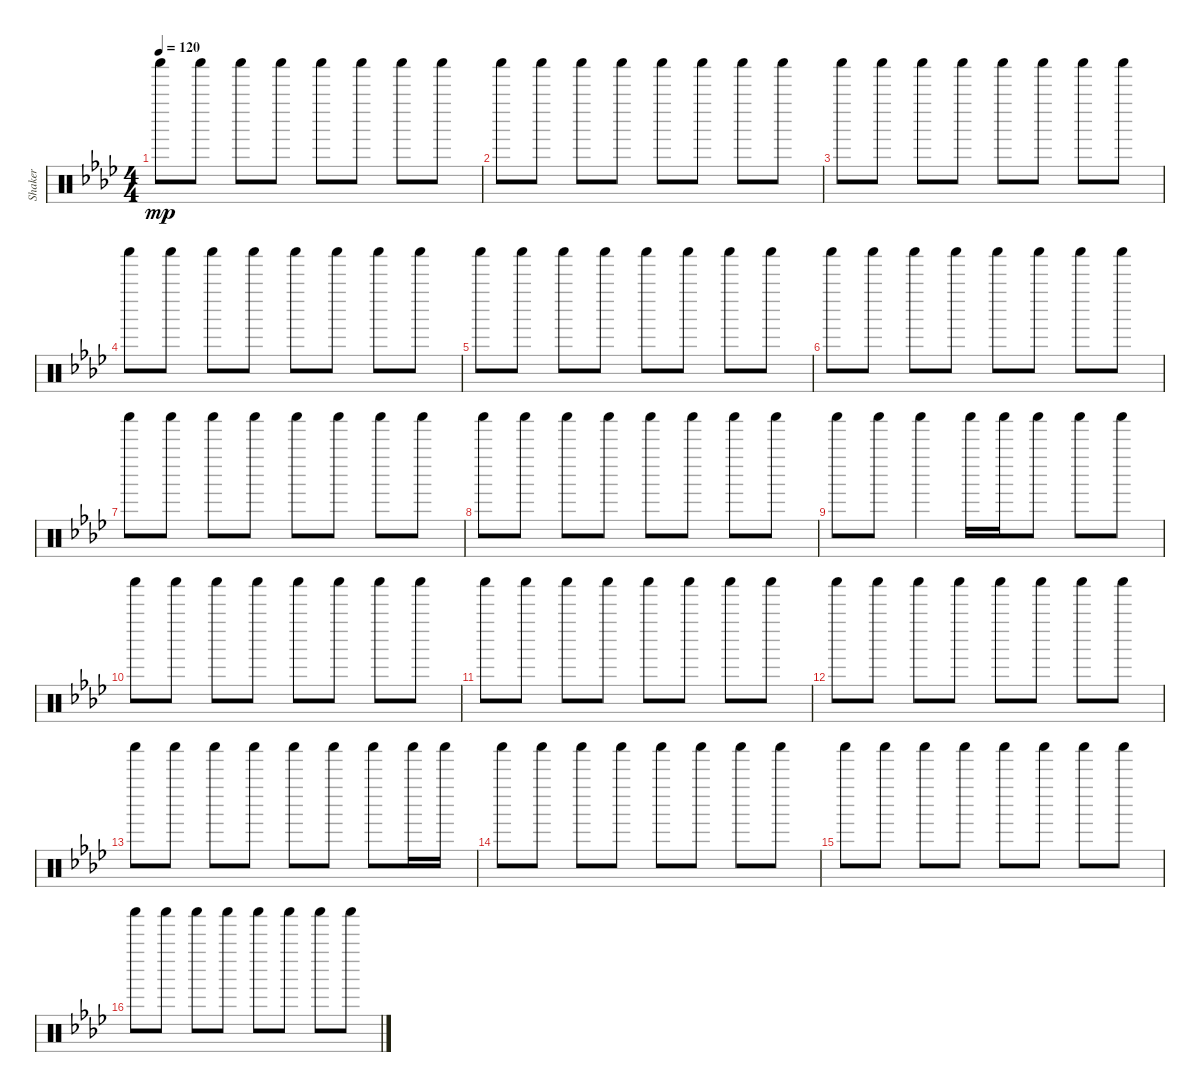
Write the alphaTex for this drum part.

\track ("Shaker" "Shaker") {instrument percussion}
\staff {score}
\articulation defaults
\ts (4 4)
\tempo 120
\clef neutral
\ks ab "Shaker (hit)".8{dy mp} "Shaker (hit)".8 "Shaker (hit)".8 "Shaker (hit)".8 "Shaker (hit)".8 "Shaker (hit)".8 "Shaker (hit)".8 "Shaker (hit)".8
|
"Shaker (hit)".8 "Shaker (hit)".8 "Shaker (hit)".8 "Shaker (hit)".8 "Shaker (hit)".8 "Shaker (hit)".8 "Shaker (hit)".8 "Shaker (hit)".8 |
"Shaker (hit)".8 "Shaker (hit)".8 "Shaker (hit)".8 "Shaker (hit)".8 "Shaker (hit)".8 "Shaker (hit)".8 "Shaker (hit)".8 "Shaker (hit)".8 |
"Shaker (hit)".8 "Shaker (hit)".8 "Shaker (hit)".8 "Shaker (hit)".8 "Shaker (hit)".8 "Shaker (hit)".8 "Shaker (hit)".8 "Shaker (hit)".8 |
"Shaker (hit)".8 "Shaker (hit)".8 "Shaker (hit)".8 "Shaker (hit)".8 "Shaker (hit)".8 "Shaker (hit)".8 "Shaker (hit)".8 "Shaker (hit)".8 |
"Shaker (hit)".8 "Shaker (hit)".8 "Shaker (hit)".8 "Shaker (hit)".8 "Shaker (hit)".8 "Shaker (hit)".8 "Shaker (hit)".8 "Shaker (hit)".8 |
"Shaker (hit)".8 "Shaker (hit)".8 "Shaker (hit)".8 "Shaker (hit)".8 "Shaker (hit)".8 "Shaker (hit)".8 "Shaker (hit)".8 "Shaker (hit)".8 |
"Shaker (hit)".8 "Shaker (hit)".8 "Shaker (hit)".8 "Shaker (hit)".8 "Shaker (hit)".8 "Shaker (hit)".8 "Shaker (hit)".8 "Shaker (hit)".8 |
"Shaker (hit)".8 "Shaker (hit)".8 "Shaker (hit)".4 "Shaker (hit)".16 "Shaker (hit)".16 "Shaker (hit)".8 "Shaker (hit)".8 "Shaker (hit)".8 |
"Shaker (hit)".8 "Shaker (hit)".8 "Shaker (hit)".8 "Shaker (hit)".8 "Shaker (hit)".8 "Shaker (hit)".8 "Shaker (hit)".8 "Shaker (hit)".8 |
"Shaker (hit)".8 "Shaker (hit)".8 "Shaker (hit)".8 "Shaker (hit)".8 "Shaker (hit)".8 "Shaker (hit)".8 "Shaker (hit)".8 "Shaker (hit)".8 |
"Shaker (hit)".8 "Shaker (hit)".8 "Shaker (hit)".8 "Shaker (hit)".8 "Shaker (hit)".8 "Shaker (hit)".8 "Shaker (hit)".8 "Shaker (hit)".8 |
"Shaker (hit)".8 "Shaker (hit)".8 "Shaker (hit)".8 "Shaker (hit)".8 "Shaker (hit)".8 "Shaker (hit)".8 "Shaker (hit)".8 "Shaker (hit)".16 "Shaker (hit)".16 |
"Shaker (hit)".8 "Shaker (hit)".8 "Shaker (hit)".8 "Shaker (hit)".8 "Shaker (hit)".8 "Shaker (hit)".8 "Shaker (hit)".8 "Shaker (hit)".8 |
"Shaker (hit)".8 "Shaker (hit)".8 "Shaker (hit)".8 "Shaker (hit)".8 "Shaker (hit)".8 "Shaker (hit)".8 "Shaker (hit)".8 "Shaker (hit)".8 |
"Shaker (hit)".8 "Shaker (hit)".8 "Shaker (hit)".8 "Shaker (hit)".8 "Shaker (hit)".8 "Shaker (hit)".8 "Shaker (hit)".8 "Shaker (hit)".8
